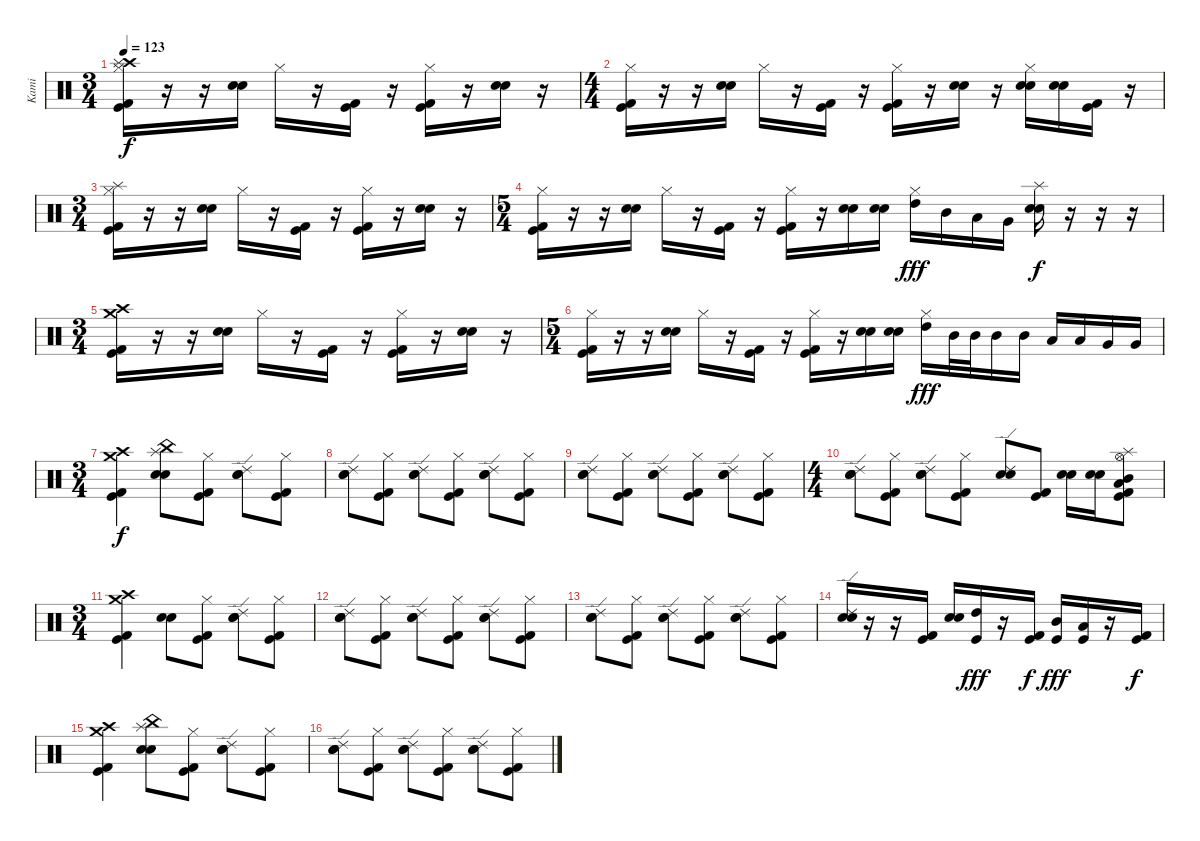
\track ("Kami" "Kami") {instrument percussion}
\staff {score}
\articulation defaults
\ts (3 4)
\tempo 123
\clef neutral
\ks c
("Kick (hit)" "Kick (hit) 2" "Crash high (hit)" "Hi-Hat (closed)" "Splash (hit)").16{dy f} r.16 r.16 ("Electric Snare (hit)" "Snare (hit) 2").16 "Hi-Hat (closed)".16 r.16 ("Kick (hit)" "Kick (hit) 2").16 r.16 ("Kick (hit)" "Kick (hit) 2" "Hi-Hat (closed)").16 r.16 ("Electric Snare (hit)" "Snare (hit) 2").16 r.16 |
\ts (4 4)
("Kick (hit)" "Kick (hit) 2" "Hi-Hat (closed)").16 r.16 r.16 ("Electric Snare (hit)" "Snare (hit) 2").16 "Hi-Hat (closed)".16 r.16 ("Kick (hit)" "Kick (hit) 2").16 r.16 ("Kick (hit)" "Kick (hit) 2" "Hi-Hat (closed)").16 r.16 ("Electric Snare (hit)" "Snare (hit) 2").16 r.16 ("Snare (hit) 2" "Electric Snare (hit)" "Hi-Hat (closed)").16 ("Snare (hit) 2" "Electric Snare (hit)").16 ("Kick (hit)" "Kick (hit) 2").16 r.16 |
\ts (3 4)
("Kick (hit)" "Kick (hit) 2" "Hi-Hat (closed)" "Splash (hit)").16 r.16 r.16 ("Electric Snare (hit)" "Snare (hit) 2").16 "Hi-Hat (closed)".16 r.16 ("Kick (hit)" "Kick (hit) 2").16 r.16 ("Kick (hit)" "Kick (hit) 2" "Hi-Hat (closed)").16 r.16 ("Electric Snare (hit)" "Snare (hit) 2").16 r.16 |
\ts (5 4)
("Kick (hit)" "Kick (hit) 2" "Hi-Hat (closed)").16 r.16 r.16 ("Electric Snare (hit)" "Snare (hit) 2").16 "Hi-Hat (closed)".16 r.16 ("Kick (hit)" "Kick (hit) 2").16 r.16 ("Kick (hit)" "Kick (hit) 2" "Hi-Hat (closed)").16 r.16 ("Electric Snare (hit)" "Snare (hit) 2").16 ("Electric Snare (hit)" "Snare (hit) 2").16 ("High Tom (hit)" "Hi-Hat (closed)").16{dy fff} "Mid Tom (hit)".16 "Low Tom (hit)".16 "Very Low Tom (hit)".16 ("Electric Snare (hit)" "Snare (hit) 2" "Splash (hit)").16{dy f} r.16 r.16 r.16 |
\ts (3 4)
("Kick (hit)" "Kick (hit) 2" "Crash high (hit)" "Crash medium (hit)").16 r.16 r.16 ("Electric Snare (hit)" "Snare (hit) 2").16 "Hi-Hat (closed)".16 r.16 ("Kick (hit)" "Kick (hit) 2").16 r.16 ("Kick (hit)" "Kick (hit) 2" "Hi-Hat (closed)").16 r.16 ("Electric Snare (hit)" "Snare (hit) 2").16 r.16 |
\ts (5 4)
("Kick (hit)" "Kick (hit) 2" "Hi-Hat (closed)").16 r.16 r.16 ("Electric Snare (hit)" "Snare (hit) 2").16 "Hi-Hat (closed)".16 r.16 ("Kick (hit)" "Kick (hit) 2").16 r.16 ("Kick (hit)" "Kick (hit) 2" "Hi-Hat (closed)").16 r.16 ("Electric Snare (hit)" "Snare (hit) 2").16 ("Electric Snare (hit)" "Snare (hit) 2").16 ("High Tom (hit)" "Hi-Hat (closed)").16{dy fff} "Mid Tom (hit)".32 "Mid Tom (hit)".32 "Mid Tom (hit)".16 "Mid Tom (hit)".16 "Low Tom (hit)".16 "Low Tom (hit)".16 "Very Low Tom (hit)".16 "Very Low Tom (hit)".16 |
\ts (3 4)
("Kick (hit)" "Kick (hit) 2" "Crash medium (hit)" "Crash high (hit)").4{dy f} ("Electric Snare (hit)" "Snare (hit) 2" "China (hit)" "Splash (hit)").8 ("Kick (hit)" "Kick (hit) 2" "Hi-Hat (closed)").8 ("Snare (hit) 2" "Electric Snare (hit)" "Ride (edge) 2").8 ("Kick (hit)" "Kick (hit) 2" "Hi-Hat (closed)").8 |
("Snare (hit) 2" "Electric Snare (hit)" "Ride (edge) 2").8 ("Kick (hit)" "Kick (hit) 2" "Hi-Hat (closed)").8 ("Snare (hit) 2" "Electric Snare (hit)" "Ride (edge) 2").8 ("Kick (hit)" "Kick (hit) 2" "Hi-Hat (closed)").8 ("Snare (hit) 2" "Electric Snare (hit)" "Ride (edge) 2").8 ("Kick (hit)" "Kick (hit) 2" "Hi-Hat (closed)").8 |
("Snare (hit) 2" "Electric Snare (hit)" "Ride (edge) 2").8 ("Kick (hit)" "Kick (hit) 2" "Hi-Hat (closed)").8 ("Snare (hit) 2" "Electric Snare (hit)" "Ride (edge) 2").8 ("Kick (hit)" "Kick (hit) 2" "Hi-Hat (closed)").8 ("Snare (hit) 2" "Electric Snare (hit)" "Ride (edge) 2").8 ("Kick (hit)" "Kick (hit) 2" "Hi-Hat (closed)").8 |
\ts (4 4)
("Snare (hit) 2" "Electric Snare (hit)" "Ride (edge) 2").8 ("Kick (hit)" "Kick (hit) 2" "Hi-Hat (closed)").8 ("Snare (hit) 2" "Electric Snare (hit)" "Ride (edge) 2").8 ("Kick (hit)" "Kick (hit) 2" "Hi-Hat (closed)").8 ("Snare (hit) 2" "Electric Snare (hit)" "Ride (edge) 2").8 ("Kick (hit)" "Kick (hit) 2").8 ("Electric Snare (hit)" "Snare (hit) 2").16 ("Electric Snare (hit)" "Snare (hit) 2").16 ("Kick (hit)" "Kick (hit) 2" "Hi-Hat (open)" "Low Tom (hit)" "Mid Tom (hit)" "Splash (hit)").8 |
\ts (3 4)
("Kick (hit)" "Kick (hit) 2" "Crash medium (hit)" "Crash high (hit)").4 ("Electric Snare (hit)" "Snare (hit) 2").8 ("Kick (hit)" "Kick (hit) 2" "Hi-Hat (closed)").8 ("Snare (hit) 2" "Electric Snare (hit)" "Ride (edge) 2").8 ("Kick (hit)" "Kick (hit) 2" "Hi-Hat (closed)").8 |
("Snare (hit) 2" "Electric Snare (hit)" "Ride (edge) 2").8 ("Kick (hit)" "Kick (hit) 2" "Hi-Hat (closed)").8 ("Snare (hit) 2" "Electric Snare (hit)" "Ride (edge) 2").8 ("Kick (hit)" "Kick (hit) 2" "Hi-Hat (closed)").8 ("Snare (hit) 2" "Electric Snare (hit)" "Ride (edge) 2").8 ("Kick (hit)" "Kick (hit) 2" "Hi-Hat (closed)").8 |
("Snare (hit) 2" "Electric Snare (hit)" "Ride (edge) 2").8 ("Kick (hit)" "Kick (hit) 2" "Hi-Hat (closed)").8 ("Snare (hit) 2" "Electric Snare (hit)" "Ride (edge) 2").8 ("Kick (hit)" "Kick (hit) 2" "Hi-Hat (closed)").8 ("Snare (hit) 2" "Electric Snare (hit)" "Ride (edge) 2").8 ("Kick (hit)" "Kick (hit) 2" "Hi-Hat (closed)").8 |
("Snare (hit) 2" "Electric Snare (hit)" "Ride (edge) 2").16 r.16 r.16 ("Kick (hit)" "Kick (hit) 2").16 ("Electric Snare (hit)" "Snare (hit) 2").16 ("Kick (hit)" "High Tom (hit)").16{dy fff} r.16 ("Kick (hit)" "Kick (hit) 2").16{dy f} ("Kick (hit)" "Mid Tom (hit)").16{dy fff} ("Kick (hit)" "Low Tom (hit)").16 r.16 ("Kick (hit)" "Kick (hit) 2").16{dy f} |
("Kick (hit)" "Kick (hit) 2" "Crash medium (hit)" "Crash high (hit)").4 ("Electric Snare (hit)" "Snare (hit) 2" "China (hit)" "Splash (hit)").8 ("Kick (hit)" "Kick (hit) 2" "Hi-Hat (closed)").8 ("Snare (hit) 2" "Electric Snare (hit)" "Ride (edge) 2").8 ("Kick (hit)" "Kick (hit) 2" "Hi-Hat (closed)").8 |
("Snare (hit) 2" "Electric Snare (hit)" "Ride (edge) 2").8 ("Kick (hit)" "Kick (hit) 2" "Hi-Hat (closed)").8 ("Snare (hit) 2" "Electric Snare (hit)" "Ride (edge) 2").8 ("Kick (hit)" "Kick (hit) 2" "Hi-Hat (closed)").8 ("Snare (hit) 2" "Electric Snare (hit)" "Ride (edge) 2").8 ("Kick (hit)" "Kick (hit) 2" "Hi-Hat (closed)").8
